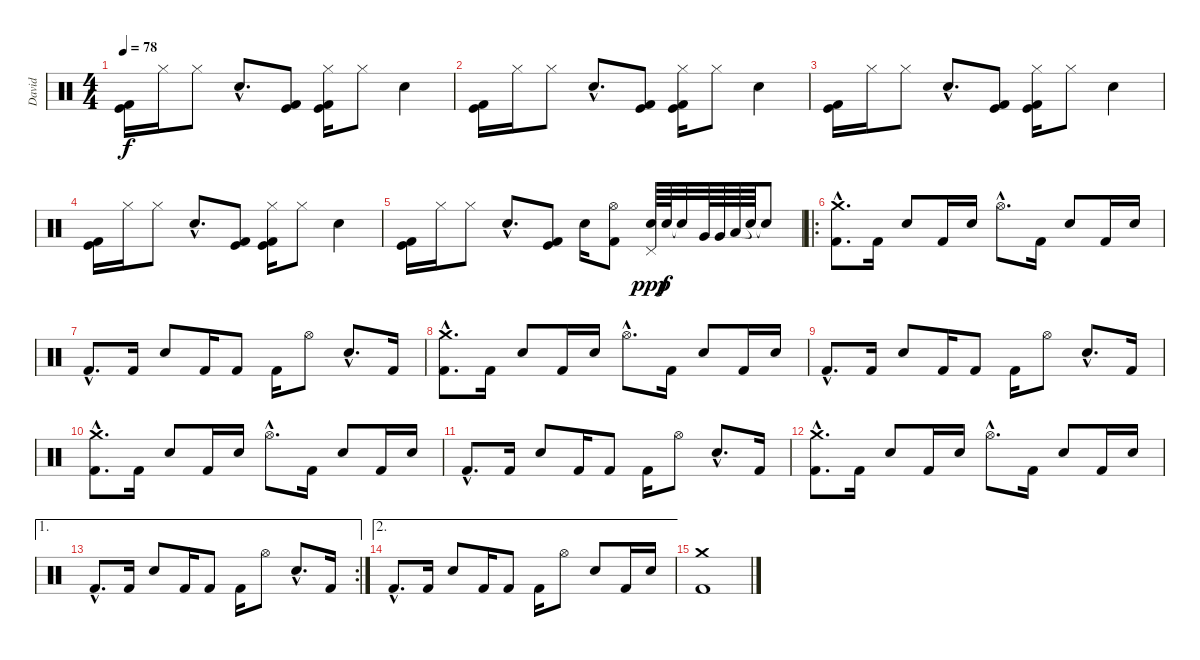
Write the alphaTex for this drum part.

\track ("David" "David") {instrument percussion}
\staff {score}
\articulation defaults
\ts (4 4)
\tempo 78
\clef neutral
\ks c
("Kick (hit) 2" "Kick (hit)").16{dy f} "Hi-Hat (closed)".16 "Hi-Hat (closed)".8 "Electric Snare (hit)"{hac}.8{d} ("Kick (hit) 2" "Kick (hit)").8 ("Hi-Hat (closed)" "Kick (hit) 2" "Kick (hit)").16 "Hi-Hat (closed)".8 "Electric Snare (hit)".4 |
("Kick (hit) 2" "Kick (hit)").16 "Hi-Hat (closed)".16 "Hi-Hat (closed)".8 "Electric Snare (hit)"{hac}.8{d} ("Kick (hit) 2" "Kick (hit)").8 ("Hi-Hat (closed)" "Kick (hit) 2" "Kick (hit)").16 "Hi-Hat (closed)".8 "Electric Snare (hit)".4 |
("Kick (hit) 2" "Kick (hit)").16 "Hi-Hat (closed)".16 "Hi-Hat (closed)".8 "Electric Snare (hit)"{hac}.8{d} ("Kick (hit) 2" "Kick (hit)").8 ("Hi-Hat (closed)" "Kick (hit) 2" "Kick (hit)").16 "Hi-Hat (closed)".8 "Electric Snare (hit)".4 |
("Kick (hit) 2" "Kick (hit)").16 "Hi-Hat (closed)".16 "Hi-Hat (closed)".8 "Electric Snare (hit)"{hac}.8{d} ("Kick (hit) 2" "Kick (hit)").8 ("Hi-Hat (closed)" "Kick (hit) 2" "Kick (hit)").16 "Hi-Hat (closed)".8 "Electric Snare (hit)".4 |
("Kick (hit) 2" "Kick (hit)").16 "Hi-Hat (closed)".16 "Hi-Hat (closed)".8 "Electric Snare (hit)"{hac}.8{d} ("Kick (hit) 2" "Kick (hit)").8 "Snare (hit) 2".16 ("Hi-Hat (open)" "Kick (hit) 2").8 ("Pedal Hi-Hat (hit)" "Snare (hit) 2").64{dy ppp} "Snare (hit) 2".64{dy f} "Snare (hit)"{t}.32 "Very Low Tom (hit)".64 "Very Low Tom (hit)".64 "Low Floor Tom (hit)".64 "Snare (hit)"{t}.64 "Snare (hit)"{t}.8 |
\ro
("Crash medium (hit)"{hac} "Kick (hit) 2"{hac}).8{d} "Kick (hit) 2".16 "Snare (hit) 2".8 "Kick (hit) 2".16 "Snare (hit) 2".16 "Hi-Hat (open)"{hac}.8{d} "Kick (hit) 2".16 "Snare (hit) 2".8 "Kick (hit) 2".16 "Snare (hit) 2".16 |
"Kick (hit) 2"{hac}.8{d} "Kick (hit) 2".16 "Snare (hit) 2".8 "Kick (hit) 2".16 "Kick (hit) 2".8 "Kick (hit) 2".16 "Hi-Hat (open)".8 "Snare (hit) 2"{hac}.8{d} "Kick (hit) 2".16 |
("Crash medium (hit)"{hac} "Kick (hit) 2"{hac}).8{d} "Kick (hit) 2".16 "Snare (hit) 2".8 "Kick (hit) 2".16 "Snare (hit) 2".16 "Hi-Hat (open)"{hac}.8{d} "Kick (hit) 2".16 "Snare (hit) 2".8 "Kick (hit) 2".16 "Snare (hit) 2".16 |
"Kick (hit) 2"{hac}.8{d} "Kick (hit) 2".16 "Snare (hit) 2".8 "Kick (hit) 2".16 "Kick (hit) 2".8 "Kick (hit) 2".16 "Hi-Hat (open)".8 "Snare (hit) 2"{hac}.8{d} "Kick (hit) 2".16 |
("Crash medium (hit)"{hac} "Kick (hit) 2"{hac}).8{d} "Kick (hit) 2".16 "Snare (hit) 2".8 "Kick (hit) 2".16 "Snare (hit) 2".16 "Hi-Hat (open)"{hac}.8{d} "Kick (hit) 2".16 "Snare (hit) 2".8 "Kick (hit) 2".16 "Snare (hit) 2".16 |
"Kick (hit) 2"{hac}.8{d} "Kick (hit) 2".16 "Snare (hit) 2".8 "Kick (hit) 2".16 "Kick (hit) 2".8 "Kick (hit) 2".16 "Hi-Hat (open)".8 "Snare (hit) 2"{hac}.8{d} "Kick (hit) 2".16 |
("Crash medium (hit)"{hac} "Kick (hit) 2"{hac}).8{d} "Kick (hit) 2".16 "Snare (hit) 2".8 "Kick (hit) 2".16 "Snare (hit) 2".16 "Hi-Hat (open)"{hac}.8{d} "Kick (hit) 2".16 "Snare (hit) 2".8 "Kick (hit) 2".16 "Snare (hit) 2".16 |
\ae 1
\rc 2 "Kick (hit) 2"{hac}.8{d} "Kick (hit) 2".16 "Snare (hit) 2".8 "Kick (hit) 2".16 "Kick (hit) 2".8 "Kick (hit) 2".16 "Hi-Hat (open)".8 "Snare (hit) 2"{hac}.8{d} "Kick (hit) 2".16
|
\ae 2 "Kick (hit) 2"{hac}.8{d} "Kick (hit) 2".16 "Snare (hit) 2".8 "Kick (hit) 2".16 "Kick (hit) 2".8 "Kick (hit) 2".16 "Hi-Hat (open)".8 "Snare (hit) 2".8 "Kick (hit) 2".16 "Snare (hit) 2".16
|
("Crash medium (hit)" "Kick (hit) 2").1
